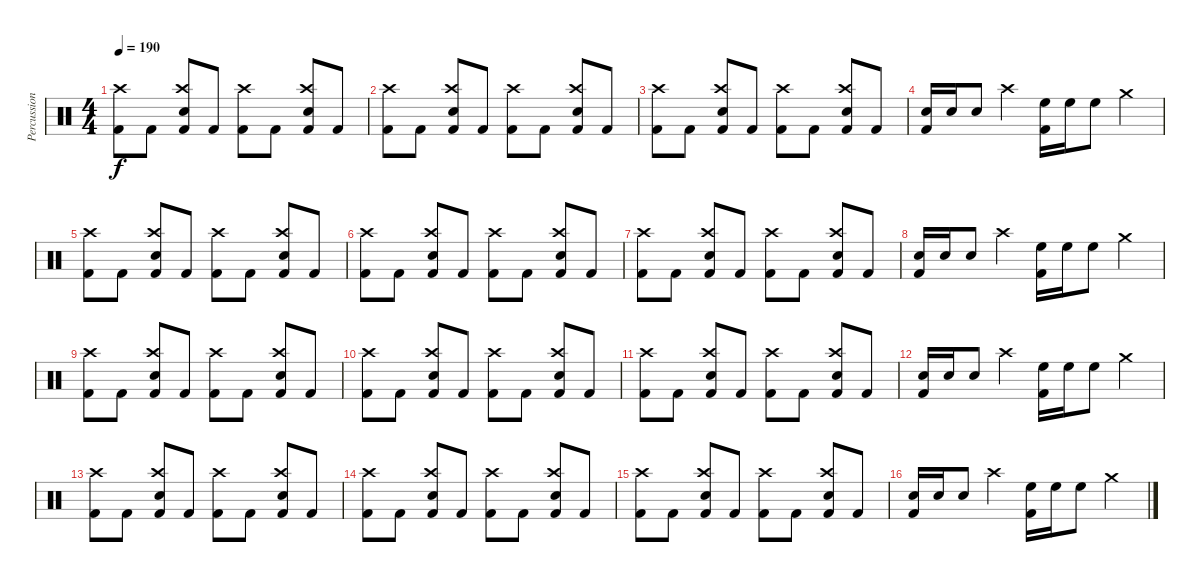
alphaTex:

\track ("Percussion" "Percussion") {instrument percussion}
\staff {score}
\articulation defaults
\ts (4 4)
\tempo 190
\clef neutral
\ks c
("Kick (hit) 2" "Crash high (hit)").8{dy f} "Kick (hit) 2".8 ("Kick (hit) 2" "Electric Snare (hit)" "Crash high (hit)").8 "Kick (hit) 2".8 ("Kick (hit) 2" "Crash high (hit)").8 "Kick (hit) 2".8 ("Kick (hit) 2" "Electric Snare (hit)" "Crash high (hit)").8 "Kick (hit) 2".8 |
("Kick (hit) 2" "Crash high (hit)").8 "Kick (hit) 2".8 ("Kick (hit) 2" "Electric Snare (hit)" "Crash high (hit)").8 "Kick (hit) 2".8 ("Kick (hit) 2" "Crash high (hit)").8 "Kick (hit) 2".8 ("Kick (hit) 2" "Electric Snare (hit)" "Crash high (hit)").8 "Kick (hit) 2".8 |
("Kick (hit) 2" "Crash high (hit)").8 "Kick (hit) 2".8 ("Kick (hit) 2" "Electric Snare (hit)" "Crash high (hit)").8 "Kick (hit) 2".8 ("Kick (hit) 2" "Crash high (hit)").8 "Kick (hit) 2".8 ("Kick (hit) 2" "Electric Snare (hit)" "Crash high (hit)").8 "Kick (hit) 2".8 |
("Kick (hit) 2" "Electric Snare (hit)").16 "Electric Snare (hit)".16 "Electric Snare (hit)".8 "Crash high (hit)".4 ("Kick (hit) 2" "High Floor Tom (hit)").16 "High Floor Tom (hit)".16 "High Floor Tom (hit)".8 "Crash medium (hit)".4 |
("Kick (hit) 2" "Crash high (hit)").8 "Kick (hit) 2".8 ("Kick (hit) 2" "Electric Snare (hit)" "Crash high (hit)").8 "Kick (hit) 2".8 ("Kick (hit) 2" "Crash high (hit)").8 "Kick (hit) 2".8 ("Kick (hit) 2" "Electric Snare (hit)" "Crash high (hit)").8 "Kick (hit) 2".8 |
("Kick (hit) 2" "Crash high (hit)").8 "Kick (hit) 2".8 ("Kick (hit) 2" "Electric Snare (hit)" "Crash high (hit)").8 "Kick (hit) 2".8 ("Kick (hit) 2" "Crash high (hit)").8 "Kick (hit) 2".8 ("Kick (hit) 2" "Electric Snare (hit)" "Crash high (hit)").8 "Kick (hit) 2".8 |
("Kick (hit) 2" "Crash high (hit)").8 "Kick (hit) 2".8 ("Kick (hit) 2" "Electric Snare (hit)" "Crash high (hit)").8 "Kick (hit) 2".8 ("Kick (hit) 2" "Crash high (hit)").8 "Kick (hit) 2".8 ("Kick (hit) 2" "Electric Snare (hit)" "Crash high (hit)").8 "Kick (hit) 2".8 |
("Kick (hit) 2" "Electric Snare (hit)").16 "Electric Snare (hit)".16 "Electric Snare (hit)".8 "Crash high (hit)".4 ("Kick (hit) 2" "High Floor Tom (hit)").16 "High Floor Tom (hit)".16 "High Floor Tom (hit)".8 "Crash medium (hit)".4 |
("Kick (hit) 2" "Crash high (hit)").8 "Kick (hit) 2".8 ("Kick (hit) 2" "Electric Snare (hit)" "Crash high (hit)").8 "Kick (hit) 2".8 ("Kick (hit) 2" "Crash high (hit)").8 "Kick (hit) 2".8 ("Kick (hit) 2" "Electric Snare (hit)" "Crash high (hit)").8 "Kick (hit) 2".8 |
("Kick (hit) 2" "Crash high (hit)").8 "Kick (hit) 2".8 ("Kick (hit) 2" "Electric Snare (hit)" "Crash high (hit)").8 "Kick (hit) 2".8 ("Kick (hit) 2" "Crash high (hit)").8 "Kick (hit) 2".8 ("Kick (hit) 2" "Electric Snare (hit)" "Crash high (hit)").8 "Kick (hit) 2".8 |
("Kick (hit) 2" "Crash high (hit)").8 "Kick (hit) 2".8 ("Kick (hit) 2" "Electric Snare (hit)" "Crash high (hit)").8 "Kick (hit) 2".8 ("Kick (hit) 2" "Crash high (hit)").8 "Kick (hit) 2".8 ("Kick (hit) 2" "Electric Snare (hit)" "Crash high (hit)").8 "Kick (hit) 2".8 |
("Kick (hit) 2" "Electric Snare (hit)").16 "Electric Snare (hit)".16 "Electric Snare (hit)".8 "Crash high (hit)".4 ("Kick (hit) 2" "High Floor Tom (hit)").16 "High Floor Tom (hit)".16 "High Floor Tom (hit)".8 "Crash medium (hit)".4 |
("Kick (hit) 2" "Crash high (hit)").8 "Kick (hit) 2".8 ("Kick (hit) 2" "Electric Snare (hit)" "Crash high (hit)").8 "Kick (hit) 2".8 ("Kick (hit) 2" "Crash high (hit)").8 "Kick (hit) 2".8 ("Kick (hit) 2" "Electric Snare (hit)" "Crash high (hit)").8 "Kick (hit) 2".8 |
("Kick (hit) 2" "Crash high (hit)").8 "Kick (hit) 2".8 ("Kick (hit) 2" "Electric Snare (hit)" "Crash high (hit)").8 "Kick (hit) 2".8 ("Kick (hit) 2" "Crash high (hit)").8 "Kick (hit) 2".8 ("Kick (hit) 2" "Electric Snare (hit)" "Crash high (hit)").8 "Kick (hit) 2".8 |
("Kick (hit) 2" "Crash high (hit)").8 "Kick (hit) 2".8 ("Kick (hit) 2" "Electric Snare (hit)" "Crash high (hit)").8 "Kick (hit) 2".8 ("Kick (hit) 2" "Crash high (hit)").8 "Kick (hit) 2".8 ("Kick (hit) 2" "Electric Snare (hit)" "Crash high (hit)").8 "Kick (hit) 2".8 |
("Kick (hit) 2" "Electric Snare (hit)").16 "Electric Snare (hit)".16 "Electric Snare (hit)".8 "Crash high (hit)".4 ("Kick (hit) 2" "High Floor Tom (hit)").16 "High Floor Tom (hit)".16 "High Floor Tom (hit)".8 "Crash medium (hit)".4
